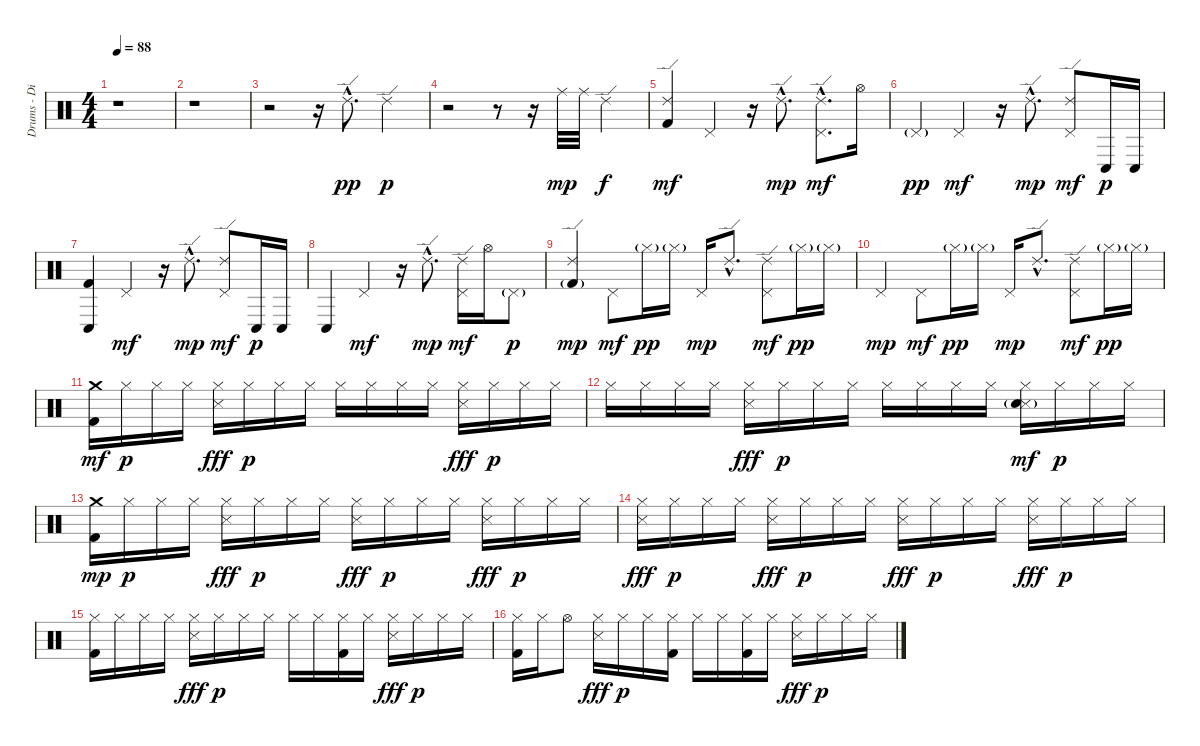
\track ("Drums - Dino Campanella" "Drums - Di") {instrument percussion}
\staff {score}
\articulation defaults
\ts (4 4)
\tempo 88
\clef neutral
\ks c
r.1{dy fff} |
r.1 |
r.2 r.16 "Ride (edge) 2"{hac}.8{d dy pp} "Ride (edge) 2".4{dy p} |
r.2 r.8 r.16 "Ride (middle)".32{dy mp} "Ride (middle)".32 "Ride (edge) 2".4{dy f} |
("Ride (edge) 2" "Kick (hit) 2").4{dy mf} "Pedal Hi-Hat (hit)".4 r.16 "Ride (edge) 2"{hac}.8{d dy mp} ("Ride (edge) 2"{hac} "Pedal Hi-Hat (hit)"{hac}).8{d dy mf} "Hi-Hat (open)".16 |
"Pedal Hi-Hat (hit)"{g}.4{dy pp} "Pedal Hi-Hat (hit)".4{dy mf} r.16 "Ride (edge) 2"{hac}.8{d dy mp} ("Ride (edge) 2" "Pedal Hi-Hat (hit)").8{dy mf} "Conga low (hit)".16{dy p} "Conga low (hit)".16 |
("Conga low (hit)" "Kick (hit) 2").4 "Pedal Hi-Hat (hit)".4{dy mf} r.16 "Ride (edge) 2"{hac}.8{d dy mp} ("Ride (edge) 2" "Pedal Hi-Hat (hit)").8{dy mf} "Conga low (hit)".16{dy p} "Conga low (hit)".16 |
"Conga low (hit)".4 "Pedal Hi-Hat (hit)".4{dy mf} r.16 "Ride (edge) 2"{hac}.8{d dy mp} ("Ride (edge) 2" "Pedal Hi-Hat (hit)").16{dy mf} "Hi-Hat (open)".16 "Pedal Hi-Hat (hit)"{g}.8{dy p} |
("Ride (edge) 2" "Kick (hit) 2"{g}).4{dy mp} "Pedal Hi-Hat (hit)".8{dy mf} "Hi-Hat (closed)"{g}.16{dy pp} "Hi-Hat (closed)"{g}.16 "Pedal Hi-Hat (hit)".16{dy mp} "Ride (edge) 2"{hac}.8{d} ("Ride (edge) 2" "Pedal Hi-Hat (hit)").8{dy mf} "Hi-Hat (closed)"{g}.16{dy pp} "Hi-Hat (closed)"{g}.16 |
"Pedal Hi-Hat (hit)".4{dy mp} "Pedal Hi-Hat (hit)".8{dy mf} "Hi-Hat (closed)"{g}.16{dy pp} "Hi-Hat (closed)"{g}.16 "Pedal Hi-Hat (hit)".16{dy mp} "Ride (edge) 2"{hac}.8{d} ("Ride (edge) 2" "Pedal Hi-Hat (hit)").8{dy mf} "Hi-Hat (closed)"{g}.16{dy pp} "Hi-Hat (closed)"{g}.16 |
("Crash medium (hit)" "Kick (hit) 2").16{dy mf} "Hi-Hat (closed)".16{dy p} "Hi-Hat (closed)".16 "Hi-Hat (closed)".16 ("Hi-Hat (closed)" "Snare (side stick) 3").16{dy fff} "Hi-Hat (closed)".16{dy p} "Hi-Hat (closed)".16 "Hi-Hat (closed)".16 "Hi-Hat (closed)".16 "Hi-Hat (closed)".16 "Hi-Hat (closed)".16 "Hi-Hat (closed)".16 ("Hi-Hat (closed)" "Snare (side stick) 3").16{dy fff} "Hi-Hat (closed)".16{dy p} "Hi-Hat (closed)".16 "Hi-Hat (closed)".16 |
"Hi-Hat (closed)".16 "Hi-Hat (closed)".16 "Hi-Hat (closed)".16 "Hi-Hat (closed)".16 ("Hi-Hat (closed)" "Snare (side stick) 3").16{dy fff} "Hi-Hat (closed)".16{dy p} "Hi-Hat (closed)".16 "Hi-Hat (closed)".16 "Hi-Hat (closed)".16 "Hi-Hat (closed)".16 "Hi-Hat (closed)".16 "Hi-Hat (closed)".16 ("Hi-Hat (closed)" "Snare (side stick) 3" "Electric Snare (hit)"{g}).16{dy mf} "Hi-Hat (closed)".16{dy p} "Hi-Hat (closed)".16 "Hi-Hat (closed)".16 |
("Crash medium (hit)" "Kick (hit) 2").16{dy mp} "Hi-Hat (closed)".16{dy p} "Hi-Hat (closed)".16 "Hi-Hat (closed)".16 ("Hi-Hat (closed)" "Snare (side stick) 3").16{dy fff} "Hi-Hat (closed)".16{dy p} "Hi-Hat (closed)".16 "Hi-Hat (closed)".16 ("Hi-Hat (closed)" "Snare (side stick) 3").16{dy fff} "Hi-Hat (closed)".16{dy p} "Hi-Hat (closed)".16 "Hi-Hat (closed)".16 ("Hi-Hat (closed)" "Snare (side stick) 3").16{dy fff} "Hi-Hat (closed)".16{dy p} "Hi-Hat (closed)".16 "Hi-Hat (closed)".16 |
("Hi-Hat (closed)" "Snare (side stick) 3").16{dy fff} "Hi-Hat (closed)".16{dy p} "Hi-Hat (closed)".16 "Hi-Hat (closed)".16 ("Hi-Hat (closed)" "Snare (side stick) 3").16{dy fff} "Hi-Hat (closed)".16{dy p} "Hi-Hat (closed)".16 "Hi-Hat (closed)".16 ("Hi-Hat (closed)" "Snare (side stick) 3").16{dy fff} "Hi-Hat (closed)".16{dy p} "Hi-Hat (closed)".16 "Hi-Hat (closed)".16 ("Hi-Hat (closed)" "Snare (side stick) 3").16{dy fff} "Hi-Hat (closed)".16{dy p} "Hi-Hat (closed)".16 "Hi-Hat (closed)".16 |
("Hi-Hat (closed)" "Kick (hit) 2").16 "Hi-Hat (closed)".16 "Hi-Hat (closed)".16 "Hi-Hat (closed)".16 ("Hi-Hat (closed)" "Snare (side stick) 3").16{dy fff} "Hi-Hat (closed)".16{dy p} "Hi-Hat (closed)".16 "Hi-Hat (closed)".16 "Hi-Hat (closed)".16 "Hi-Hat (closed)".16 ("Hi-Hat (closed)" "Kick (hit) 2").16 "Hi-Hat (closed)".16 ("Hi-Hat (closed)" "Snare (side stick) 3").16{dy fff} "Hi-Hat (closed)".16{dy p} "Hi-Hat (closed)".16 "Hi-Hat (closed)".16 |
("Hi-Hat (closed)" "Kick (hit) 2").16 "Hi-Hat (closed)".16 "Hi-Hat (open)".8 ("Hi-Hat (closed)" "Snare (side stick) 3").16{dy fff} "Hi-Hat (closed)".16{dy p} "Hi-Hat (closed)".16 ("Hi-Hat (closed)" "Kick (hit) 2").16 "Hi-Hat (closed)".16 "Hi-Hat (closed)".16 ("Hi-Hat (closed)" "Kick (hit) 2").16 "Hi-Hat (closed)".16 ("Hi-Hat (closed)" "Snare (side stick) 3").16{dy fff} "Hi-Hat (closed)".16{dy p} "Hi-Hat (closed)".16 "Hi-Hat (closed)".16
